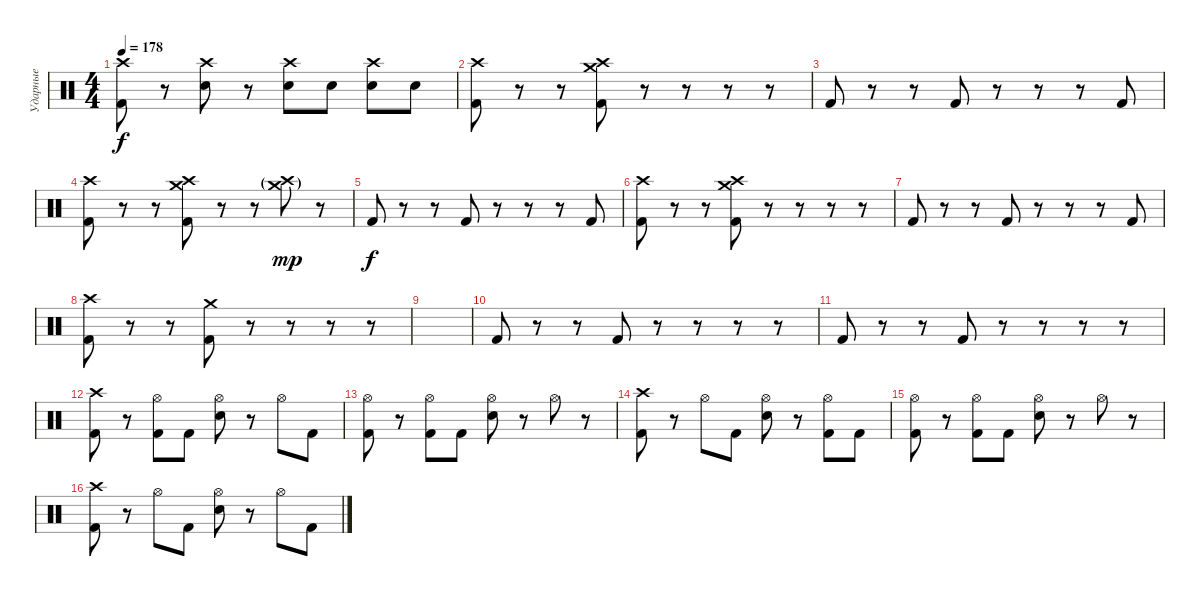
\track ("Ударные" "Ударные") {instrument percussion}
\staff {score}
\articulation defaults
\ts (4 4)
\tempo 178
\clef neutral
\ks c
("Crash high (hit)" "Kick (hit) 2").8{dy f} r.8 ("Crash high (hit)" "Snare (hit) 2").8 r.8 ("Crash high (hit)" "Snare (hit) 2").8 "Snare (hit) 2".8 ("Crash high (hit)" "Snare (hit) 2").8 "Snare (hit) 2".8 |
("Crash high (hit)" "Kick (hit) 2").8 r.8 r.8 ("Crash medium (hit)" "Kick (hit) 2" "Crash high (hit)").8 r.8 r.8 r.8 r.8 |
"Kick (hit) 2".8 r.8 r.8 "Kick (hit) 2".8 r.8 r.8 r.8 "Kick (hit) 2".8 |
("Crash high (hit)" "Kick (hit) 2").8 r.8 r.8 ("Crash medium (hit)" "Kick (hit) 2" "Crash high (hit)").8 r.8 r.8 ("Crash medium (hit)"{g} "Crash high (hit)"{g}).8{dy mp} r.8 |
"Kick (hit) 2".8{dy f} r.8 r.8 "Kick (hit) 2".8 r.8 r.8 r.8 "Kick (hit) 2".8 |
("Crash high (hit)" "Kick (hit) 2").8 r.8 r.8 ("Crash medium (hit)" "Kick (hit) 2" "Crash high (hit)").8 r.8 r.8 r.8 r.8 |
"Kick (hit) 2".8 r.8 r.8 "Kick (hit) 2".8 r.8 r.8 r.8 "Kick (hit) 2".8 |
("Crash high (hit)" "Kick (hit) 2").8 r.8 r.8 ("Crash medium (hit)" "Kick (hit) 2").8 r.8 r.8 r.8 r.8 |
|
"Kick (hit) 2".8 r.8 r.8 "Kick (hit) 2".8 r.8 r.8 r.8 r.8 |
"Kick (hit) 2".8 r.8 r.8 "Kick (hit) 2".8 r.8 r.8 r.8 r.8 |
("Crash high (hit)" "Kick (hit) 2").8 r.8 ("Hi-Hat (open)" "Kick (hit) 2").8 "Kick (hit) 2".8 ("Hi-Hat (open)" "Snare (hit) 2").8 r.8 "Hi-Hat (open)".8 "Kick (hit) 2".8 |
("Hi-Hat (open)" "Kick (hit) 2").8 r.8 ("Hi-Hat (open)" "Kick (hit) 2").8 "Kick (hit) 2".8 ("Hi-Hat (open)" "Snare (hit) 2").8 r.8 "Hi-Hat (open)".8 r.8 |
("Crash high (hit)" "Kick (hit) 2").8 r.8 "Hi-Hat (open)".8 "Kick (hit) 2".8 ("Hi-Hat (open)" "Snare (hit) 2").8 r.8 ("Hi-Hat (open)" "Kick (hit) 2").8 "Kick (hit) 2".8 |
("Hi-Hat (open)" "Kick (hit) 2").8 r.8 ("Hi-Hat (open)" "Kick (hit) 2").8 "Kick (hit) 2".8 ("Hi-Hat (open)" "Snare (hit) 2").8 r.8 "Hi-Hat (open)".8 r.8 |
("Crash high (hit)" "Kick (hit) 2").8 r.8 "Hi-Hat (open)".8 "Kick (hit) 2".8 ("Hi-Hat (open)" "Snare (hit) 2").8 r.8 "Hi-Hat (open)".8 "Kick (hit) 2".8
